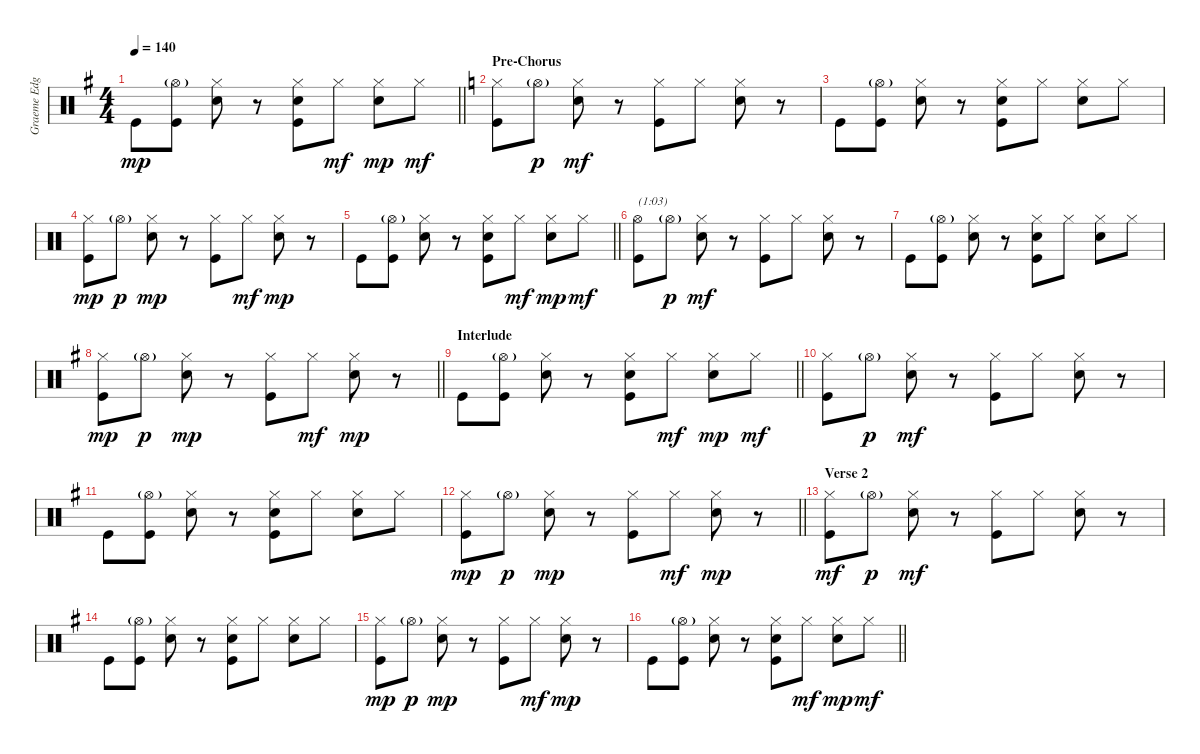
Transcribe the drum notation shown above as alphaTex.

\track ("Graeme Edge" "Graeme Edg") {instrument percussion}
\staff {score}
\articulation defaults
\ts (4 4)
\tempo 140
\clef neutral
\barLineRight lightlight
\ks g "Kick (hit)".8{dy mp}
("Hi-Hat (open)"{g} "Kick (hit)").8 ("Hi-Hat (closed)" "Snare (hit) 2").8 r.8 ("Hi-Hat (closed)" "Hand Clap (hit)" "Kick (hit)").8 "Hi-Hat (closed)".8{dy mf} ("Hi-Hat (closed)" "Snare (hit) 2").8{dy mp} "Hi-Hat (closed)".8{dy mf} |
\section ("" "Pre-Chorus")
\ks c
("Hi-Hat (closed)" "Kick (hit)").8 "Hi-Hat (open)"{g}.8{dy p} ("Hi-Hat (closed)" "Snare (hit) 2").8{dy mf} r.8 ("Hi-Hat (closed)" "Kick (hit)").8 "Hi-Hat (closed)".8 ("Hi-Hat (closed)" "Snare (hit) 2").8 r.8 |
"Kick (hit)".8 ("Hi-Hat (open)"{g} "Kick (hit)").8 ("Hi-Hat (closed)" "Snare (hit) 2").8 r.8 ("Hi-Hat (closed)" "Hand Clap (hit)" "Kick (hit)").8 "Hi-Hat (closed)".8 ("Hi-Hat (closed)" "Snare (hit) 2").8 "Hi-Hat (closed)".8 |
("Hi-Hat (closed)" "Kick (hit)").8{dy mp} "Hi-Hat (open)"{g}.8{dy p} ("Hi-Hat (closed)" "Snare (hit) 2").8{dy mp} r.8 ("Hi-Hat (closed)" "Kick (hit)").8 "Hi-Hat (closed)".8{dy mf} ("Hi-Hat (closed)" "Snare (hit) 2").8{dy mp} r.8 |
\barLineRight lightlight "Kick (hit)".8
("Hi-Hat (open)"{g} "Kick (hit)").8 ("Hi-Hat (closed)" "Snare (hit) 2").8 r.8 ("Hi-Hat (closed)" "Hand Clap (hit)" "Kick (hit)").8 "Hi-Hat (closed)".8{dy mf} ("Hi-Hat (closed)" "Snare (hit) 2").8{dy mp} "Hi-Hat (closed)".8{dy mf} |
\section ("" "")
("Hi-Hat (open)" "Kick (hit)").8{txt "(1:03)"} "Hi-Hat (open)"{g}.8{dy p} ("Hi-Hat (closed)" "Snare (hit) 2").8{dy mf} r.8 ("Hi-Hat (closed)" "Kick (hit)").8 "Hi-Hat (closed)".8 ("Hi-Hat (closed)" "Snare (hit) 2").8 r.8 |
"Kick (hit)".8 ("Hi-Hat (open)"{g} "Kick (hit)").8 ("Hi-Hat (closed)" "Snare (hit) 2").8 r.8 ("Hi-Hat (closed)" "Hand Clap (hit)" "Kick (hit)").8 "Hi-Hat (closed)".8 ("Hi-Hat (closed)" "Snare (hit) 2").8 "Hi-Hat (closed)".8 |
\barLineRight lightlight
\ks g
("Hi-Hat (closed)" "Kick (hit)").8{dy mp} "Hi-Hat (open)"{g}.8{dy p} ("Hi-Hat (closed)" "Snare (hit) 2").8{dy mp} r.8 ("Hi-Hat (closed)" "Kick (hit)").8 "Hi-Hat (closed)".8{dy mf} ("Hi-Hat (closed)" "Snare (hit) 2").8{dy mp} r.8 |
\section ("" "Interlude")
\barLineRight lightlight "Kick (hit)".8
("Hi-Hat (open)"{g} "Kick (hit)").8 ("Hi-Hat (closed)" "Snare (hit) 2").8 r.8 ("Hi-Hat (closed)" "Hand Clap (hit)" "Kick (hit)").8 "Hi-Hat (closed)".8{dy mf} ("Hi-Hat (closed)" "Snare (hit) 2").8{dy mp} "Hi-Hat (closed)".8{dy mf} |
("Hi-Hat (closed)" "Kick (hit)").8 "Hi-Hat (open)"{g}.8{dy p} ("Hi-Hat (closed)" "Snare (hit) 2").8{dy mf} r.8 ("Hi-Hat (closed)" "Kick (hit)").8 "Hi-Hat (closed)".8 ("Hi-Hat (closed)" "Snare (hit) 2").8 r.8 |
"Kick (hit)".8 ("Hi-Hat (open)"{g} "Kick (hit)").8 ("Hi-Hat (closed)" "Snare (hit) 2").8 r.8 ("Hi-Hat (closed)" "Hand Clap (hit)" "Kick (hit)").8 "Hi-Hat (closed)".8 ("Hi-Hat (closed)" "Snare (hit) 2").8 "Hi-Hat (closed)".8 |
\barLineRight lightlight
("Hi-Hat (closed)" "Kick (hit)").8{dy mp} "Hi-Hat (open)"{g}.8{dy p} ("Hi-Hat (closed)" "Snare (hit) 2").8{dy mp} r.8 ("Hi-Hat (closed)" "Kick (hit)").8 "Hi-Hat (closed)".8{dy mf} ("Hi-Hat (closed)" "Snare (hit) 2").8{dy mp} r.8 |
\section ("" "Verse 2")
("Hi-Hat (closed)" "Kick (hit)").8{dy mf} "Hi-Hat (open)"{g}.8{dy p} ("Hi-Hat (closed)" "Snare (hit) 2").8{dy mf} r.8 ("Hi-Hat (closed)" "Kick (hit)").8 "Hi-Hat (closed)".8 ("Hi-Hat (closed)" "Snare (hit) 2").8 r.8 |
"Kick (hit)".8 ("Hi-Hat (open)"{g} "Kick (hit)").8 ("Hi-Hat (closed)" "Snare (hit) 2").8 r.8 ("Hi-Hat (closed)" "Hand Clap (hit)" "Kick (hit)").8 "Hi-Hat (closed)".8 ("Hi-Hat (closed)" "Snare (hit) 2").8 "Hi-Hat (closed)".8 |
("Hi-Hat (closed)" "Kick (hit)").8{dy mp} "Hi-Hat (open)"{g}.8{dy p} ("Hi-Hat (closed)" "Snare (hit) 2").8{dy mp} r.8 ("Hi-Hat (closed)" "Kick (hit)").8 "Hi-Hat (closed)".8{dy mf} ("Hi-Hat (closed)" "Snare (hit) 2").8{dy mp} r.8 |
\barLineRight lightlight "Kick (hit)".8
("Hi-Hat (open)"{g} "Kick (hit)").8 ("Hi-Hat (closed)" "Snare (hit) 2").8 r.8 ("Hi-Hat (closed)" "Hand Clap (hit)" "Kick (hit)").8 "Hi-Hat (closed)".8{dy mf} ("Hi-Hat (closed)" "Snare (hit) 2").8{dy mp} "Hi-Hat (closed)".8{dy mf}
